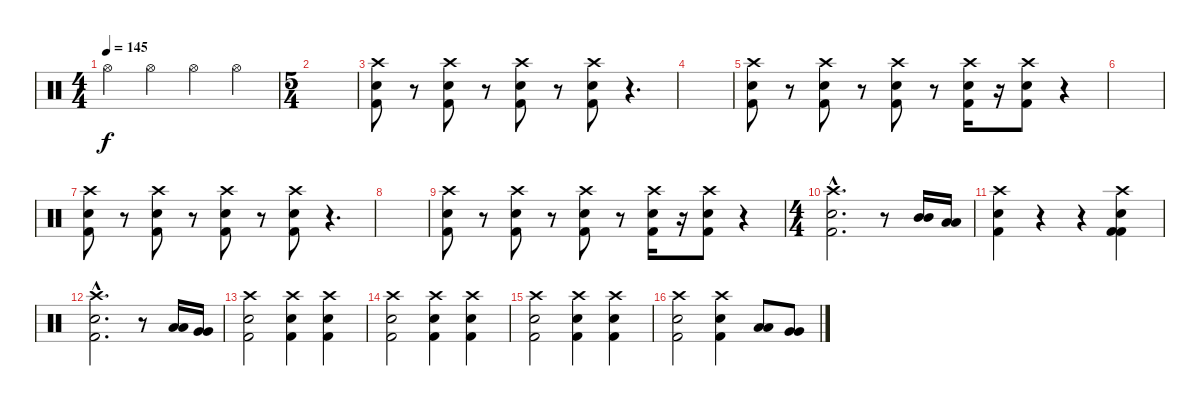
\track "" {instrument percussion}
\staff {score}
\articulation defaults
\ts (4 4)
\tempo 145
\clef neutral
\ks c "Hi-Hat (open)".4{dy f} "Hi-Hat (open)".4 "Hi-Hat (open)".4 "Hi-Hat (open)".4
|
\ts (5 4)
|
("Crash high (hit)" "Snare (hit) 2" "Kick (hit) 2").8 r.8 ("Crash high (hit)" "Snare (hit) 2" "Kick (hit) 2").8 r.8 ("Crash high (hit)" "Snare (hit) 2" "Kick (hit) 2").8 r.8 ("Crash high (hit)" "Snare (hit) 2" "Kick (hit) 2").8 r.4{d} |
|
("Crash high (hit)" "Snare (hit) 2" "Kick (hit) 2").8 r.8 ("Crash high (hit)" "Snare (hit) 2" "Kick (hit) 2").8 r.8 ("Crash high (hit)" "Snare (hit) 2" "Kick (hit) 2").8 r.8 ("Crash high (hit)" "Snare (hit) 2" "Kick (hit) 2").16 r.16 ("Crash high (hit)" "Snare (hit) 2" "Kick (hit) 2").8 r.4 |
|
("Crash high (hit)" "Snare (hit) 2" "Kick (hit) 2").8 r.8 ("Crash high (hit)" "Snare (hit) 2" "Kick (hit) 2").8 r.8 ("Crash high (hit)" "Snare (hit) 2" "Kick (hit) 2").8 r.8 ("Crash high (hit)" "Snare (hit) 2" "Kick (hit) 2").8 r.4{d} |
|
("Crash high (hit)" "Snare (hit) 2" "Kick (hit) 2").8 r.8 ("Crash high (hit)" "Snare (hit) 2" "Kick (hit) 2").8 r.8 ("Crash high (hit)" "Snare (hit) 2" "Kick (hit) 2").8 r.8 ("Crash high (hit)" "Snare (hit) 2" "Kick (hit) 2").16 r.16 ("Crash high (hit)" "Snare (hit) 2" "Kick (hit) 2").8 r.4 |
\ts (4 4)
("Crash high (hit)"{hac} "Snare (hit) 2"{hac} "Kick (hit) 2"{hac}).2{d} r.8 ("Mid Tom (hit)" "Mid Tom (hit)").16 ("Low Tom (hit)" "Low Tom (hit)").16 |
("Crash high (hit)" "Snare (hit) 2" "Kick (hit) 2").4 r.4 r.4 ("Crash high (hit)" "Snare (hit) 2" "Kick (hit) 2" "Kick (hit) 2").4 |
("Crash high (hit)"{hac} "Snare (hit) 2"{hac} "Kick (hit) 2"{hac}).2{d} r.8 ("Low Tom (hit)" "Low Tom (hit)").16 ("Very Low Tom (hit)" "Very Low Tom (hit)").16 |
("Crash high (hit)" "Snare (hit) 2" "Kick (hit) 2").2 ("Crash high (hit)" "Snare (hit) 2" "Kick (hit) 2").4 ("Crash high (hit)" "Snare (hit) 2" "Kick (hit) 2").4 |
("Crash high (hit)" "Snare (hit) 2" "Kick (hit) 2").2 ("Crash high (hit)" "Snare (hit) 2" "Kick (hit) 2").4 ("Crash high (hit)" "Snare (hit) 2" "Kick (hit) 2").4 |
("Crash high (hit)" "Snare (hit) 2" "Kick (hit) 2").2 ("Crash high (hit)" "Snare (hit) 2" "Kick (hit) 2").4 ("Crash high (hit)" "Snare (hit) 2" "Kick (hit) 2").4 |
("Crash high (hit)" "Snare (hit) 2" "Kick (hit) 2").2 ("Crash high (hit)" "Snare (hit) 2" "Kick (hit) 2").4 ("Low Tom (hit)" "Low Tom (hit)").8 ("Very Low Tom (hit)" "Very Low Tom (hit)").8
